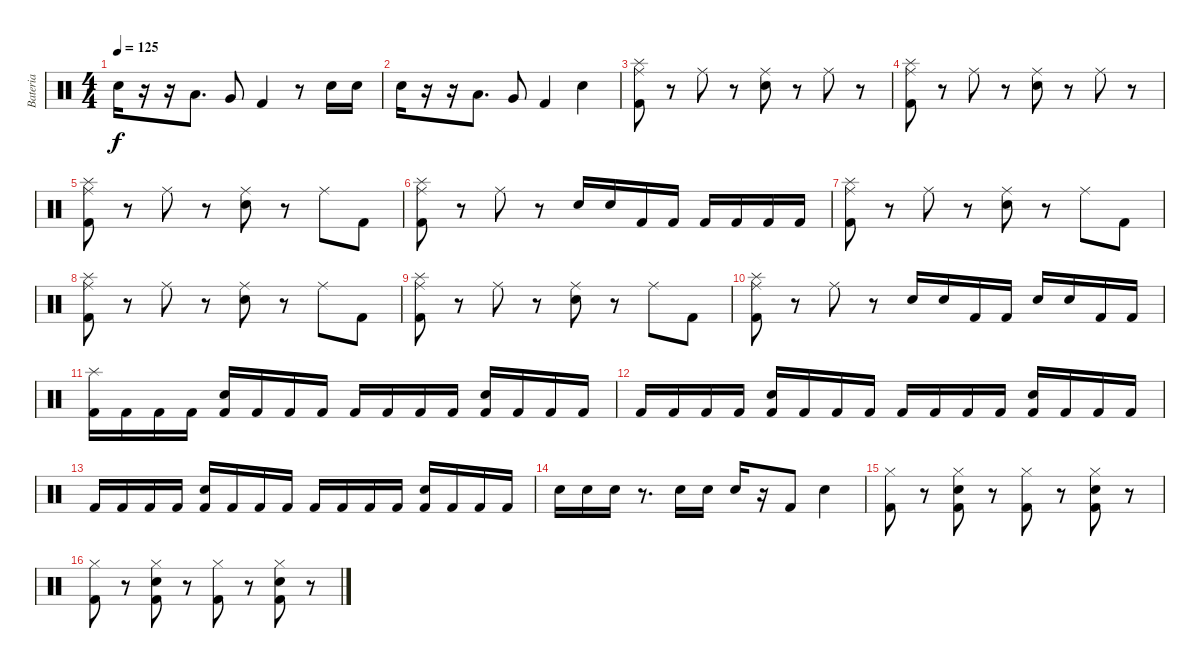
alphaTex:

\track ("Bateria" "Bateria") {instrument percussion}
\staff {score}
\articulation defaults
\ts (4 4)
\tempo 125
\clef neutral
\ks c "Electric Snare (hit)".16{dy f}
r.16 r.16 "Low Tom (hit)".8{d} "Very Low Tom (hit)".8 "Kick (hit) 2".4 r.8 "Electric Snare (hit)".16 "Electric Snare (hit)".16 |
"Electric Snare (hit)".16 r.16 r.16 "Low Tom (hit)".8{d} "Very Low Tom (hit)".8 "Kick (hit) 2".4 "Electric Snare (hit)".4 |
("Ride (middle)" "Kick (hit) 2" "Splash (hit)").8 r.8 "Ride (middle)".8 r.8 ("Ride (middle)" "Electric Snare (hit)").8 r.8 "Ride (middle)".8 r.8 |
("Ride (middle)" "Kick (hit) 2" "Splash (hit)").8 r.8 "Ride (middle)".8 r.8 ("Ride (middle)" "Electric Snare (hit)").8 r.8 "Ride (middle)".8 r.8 |
("Ride (middle)" "Kick (hit) 2" "Splash (hit)").8 r.8 "Ride (middle)".8 r.8 ("Ride (middle)" "Electric Snare (hit)").8 r.8 "Ride (middle)".8 "Kick (hit) 2".8 |
("Ride (middle)" "Kick (hit) 2" "Splash (hit)").8 r.8 "Ride (middle)".8 r.8 "Electric Snare (hit)".16 "Electric Snare (hit)".16 "Kick (hit) 2".16 "Kick (hit) 2".16 "Kick (hit) 2".16 "Kick (hit) 2".16 "Kick (hit) 2".16 "Kick (hit) 2".16 |
("Ride (middle)" "Kick (hit) 2" "Splash (hit)").8 r.8 "Ride (middle)".8 r.8 ("Ride (middle)" "Electric Snare (hit)").8 r.8 "Ride (middle)".8 "Kick (hit) 2".8 |
("Ride (middle)" "Kick (hit) 2" "Splash (hit)").8 r.8 "Ride (middle)".8 r.8 ("Ride (middle)" "Electric Snare (hit)").8 r.8 "Ride (middle)".8 "Kick (hit) 2".8 |
("Ride (middle)" "Kick (hit) 2" "Splash (hit)").8 r.8 "Ride (middle)".8 r.8 ("Ride (middle)" "Electric Snare (hit)").8 r.8 "Ride (middle)".8 "Kick (hit) 2".8 |
("Ride (middle)" "Kick (hit) 2" "Splash (hit)").8 r.8 "Ride (middle)".8 r.8 "Electric Snare (hit)".16 "Electric Snare (hit)".16 "Kick (hit) 2".16 "Kick (hit) 2".16 "Electric Snare (hit)".16 "Electric Snare (hit)".16 "Kick (hit) 2".16 "Kick (hit) 2".16 |
("Kick (hit) 2" "Splash (hit)").16 "Kick (hit) 2".16 "Kick (hit) 2".16 "Kick (hit) 2".16 ("Kick (hit) 2" "Electric Snare (hit)").16 "Kick (hit) 2".16 "Kick (hit) 2".16 "Kick (hit) 2".16 "Kick (hit) 2".16 "Kick (hit) 2".16 "Kick (hit) 2".16 "Kick (hit) 2".16 ("Kick (hit) 2" "Electric Snare (hit)").16 "Kick (hit) 2".16 "Kick (hit) 2".16 "Kick (hit) 2".16 |
"Kick (hit) 2".16 "Kick (hit) 2".16 "Kick (hit) 2".16 "Kick (hit) 2".16 ("Kick (hit) 2" "Electric Snare (hit)").16 "Kick (hit) 2".16 "Kick (hit) 2".16 "Kick (hit) 2".16 "Kick (hit) 2".16 "Kick (hit) 2".16 "Kick (hit) 2".16 "Kick (hit) 2".16 ("Kick (hit) 2" "Electric Snare (hit)").16 "Kick (hit) 2".16 "Kick (hit) 2".16 "Kick (hit) 2".16 |
"Kick (hit) 2".16 "Kick (hit) 2".16 "Kick (hit) 2".16 "Kick (hit) 2".16 ("Kick (hit) 2" "Electric Snare (hit)").16 "Kick (hit) 2".16 "Kick (hit) 2".16 "Kick (hit) 2".16 "Kick (hit) 2".16 "Kick (hit) 2".16 "Kick (hit) 2".16 "Kick (hit) 2".16 ("Kick (hit) 2" "Electric Snare (hit)").16 "Kick (hit) 2".16 "Kick (hit) 2".16 "Kick (hit) 2".16 |
"Electric Snare (hit)".16 "Electric Snare (hit)".16 "Electric Snare (hit)".16 r.8{d} "Electric Snare (hit)".16 "Electric Snare (hit)".16 "Electric Snare (hit)".16 r.16 "Kick (hit) 2".8 "Electric Snare (hit)".4 |
("Kick (hit) 2" "Hi-Hat (closed)").8 r.8 ("Kick (hit) 2" "Electric Snare (hit)" "Hi-Hat (closed)").8 r.8 ("Kick (hit) 2" "Hi-Hat (closed)").8 r.8 ("Kick (hit) 2" "Electric Snare (hit)" "Hi-Hat (closed)").8 r.8 |
("Kick (hit) 2" "Hi-Hat (closed)").8 r.8 ("Kick (hit) 2" "Electric Snare (hit)" "Hi-Hat (closed)").8 r.8 ("Kick (hit) 2" "Hi-Hat (closed)").8 r.8 ("Kick (hit) 2" "Electric Snare (hit)" "Hi-Hat (closed)").8 r.8
